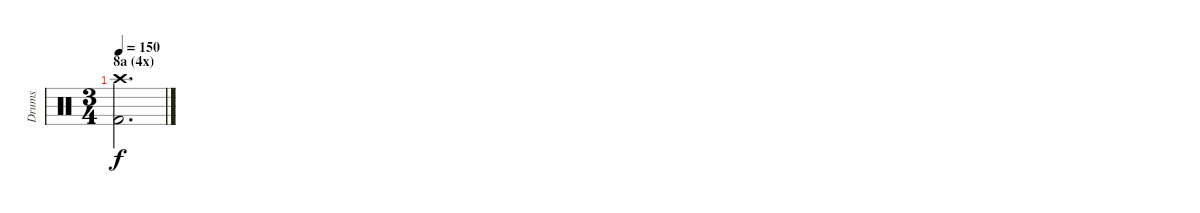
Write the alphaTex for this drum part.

\track ("Drums" "Drums") {instrument percussion}
\staff {score}
\articulation defaults
\ts (3 4)
\section ("" "8a (4x)")
\tempo 150
\clef neutral
\ks c
("Crash high (hit)" "Kick (hit) 2").2{d dy f}
